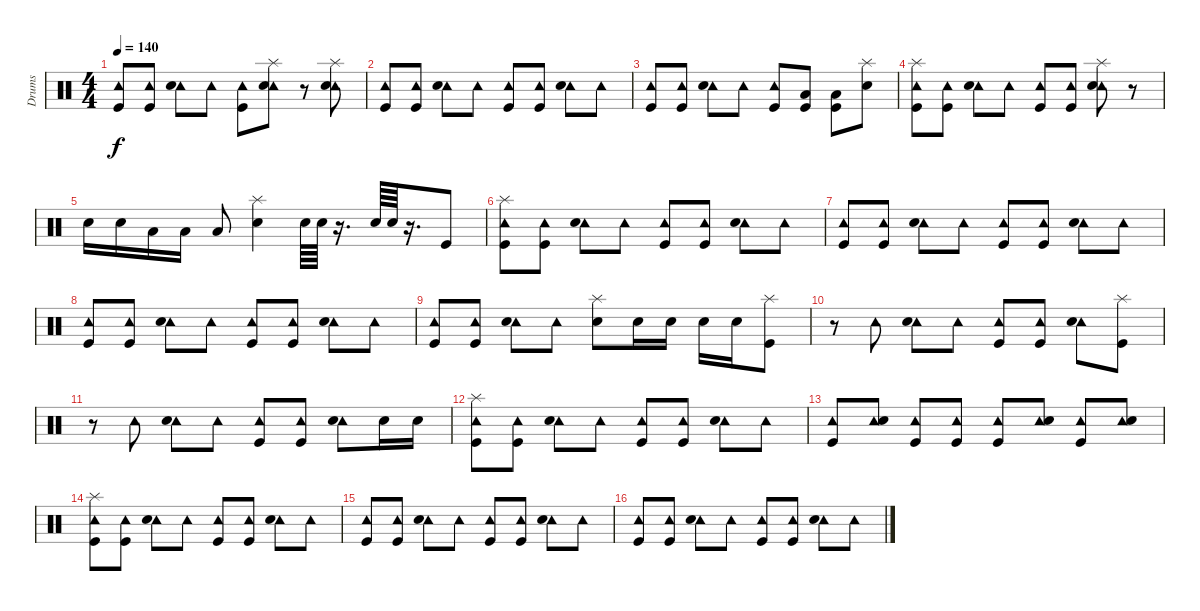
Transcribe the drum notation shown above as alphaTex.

\track ("Drums" "Drums") {instrument percussion}
\staff {score}
\articulation defaults
\ts (4 4)
\tempo 140
\clef neutral
\ks c
("Tambourine (hit)" "Kick (hit)").8{dy f} ("Tambourine (hit)" "Kick (hit)").8 ("Tambourine (hit)" "Snare (hit) 2").8 "Tambourine (hit)".8 ("Tambourine (hit)" "Kick (hit)").8 ("Tambourine (hit)" "Snare (hit) 2" "Splash (hit)").8 r.8 ("Tambourine (hit)" "Snare (hit) 2" "Splash (hit)").8 |
("Tambourine (hit)" "Kick (hit)").8 ("Tambourine (hit)" "Kick (hit)").8 ("Tambourine (hit)" "Snare (hit) 2").8 "Tambourine (hit)".8 ("Tambourine (hit)" "Kick (hit)").8 ("Tambourine (hit)" "Kick (hit)").8 ("Tambourine (hit)" "Snare (hit) 2").8 "Tambourine (hit)".8 |
("Tambourine (hit)" "Kick (hit)").8 ("Tambourine (hit)" "Kick (hit)").8 ("Tambourine (hit)" "Snare (hit) 2").8 "Tambourine (hit)".8 ("Tambourine (hit)" "Kick (hit)").8 ("Kick (hit)" "Low Tom (hit)").8 ("Kick (hit)" "Low Tom (hit)").8 ("Snare (hit) 2" "Splash (hit)").8 |
("Tambourine (hit)" "Kick (hit)" "Splash (hit)").8 ("Tambourine (hit)" "Kick (hit)").8 ("Tambourine (hit)" "Snare (hit) 2").8 "Tambourine (hit)".8 ("Tambourine (hit)" "Kick (hit)").8 ("Tambourine (hit)" "Kick (hit)").8 ("Tambourine (hit)" "Snare (hit) 2" "Splash (hit)").8 r.8 |
"Snare (hit) 2".16 "Snare (hit) 2".16 "Low Tom (hit)".16 "Low Tom (hit)".16 "Low Tom (hit)".8 ("Snare (hit) 2" "Splash (hit)").4 "Snare (hit) 2".64 "Snare (hit) 2".64 r.16{d} "Snare (hit) 2".64 "Snare (hit) 2".64 r.16{d} "Kick (hit)".8 |
("Tambourine (hit)" "Kick (hit)" "Splash (hit)").8 ("Tambourine (hit)" "Kick (hit)").8 ("Tambourine (hit)" "Snare (hit) 2").8 "Tambourine (hit)".8 ("Tambourine (hit)" "Kick (hit)").8 ("Tambourine (hit)" "Kick (hit)").8 ("Tambourine (hit)" "Snare (hit) 2").8 "Tambourine (hit)".8 |
("Tambourine (hit)" "Kick (hit)").8 ("Tambourine (hit)" "Kick (hit)").8 ("Tambourine (hit)" "Snare (hit) 2").8 "Tambourine (hit)".8 ("Tambourine (hit)" "Kick (hit)").8 ("Tambourine (hit)" "Kick (hit)").8 ("Tambourine (hit)" "Snare (hit) 2").8 "Tambourine (hit)".8 |
("Tambourine (hit)" "Kick (hit)").8 ("Tambourine (hit)" "Kick (hit)").8 ("Tambourine (hit)" "Snare (hit) 2").8 "Tambourine (hit)".8 ("Tambourine (hit)" "Kick (hit)").8 ("Tambourine (hit)" "Kick (hit)").8 ("Tambourine (hit)" "Snare (hit) 2").8 "Tambourine (hit)".8 |
("Tambourine (hit)" "Kick (hit)").8 ("Tambourine (hit)" "Kick (hit)").8 ("Tambourine (hit)" "Snare (hit) 2").8 "Tambourine (hit)".8 ("Snare (hit) 2" "Splash (hit)").8 "Snare (hit) 2".16 "Snare (hit) 2".16 "Snare (hit) 2".16 "Snare (hit) 2".16 ("Kick (hit)" "Splash (hit)").8 |
r.8 "Tambourine (hit)".8 ("Tambourine (hit)" "Snare (hit) 2").8 "Tambourine (hit)".8 ("Tambourine (hit)" "Kick (hit)").8 ("Tambourine (hit)" "Kick (hit)").8 ("Tambourine (hit)" "Snare (hit) 2").8 ("Kick (hit)" "Splash (hit)").8 |
r.8 "Tambourine (hit)".8 ("Tambourine (hit)" "Snare (hit) 2").8 "Tambourine (hit)".8 ("Tambourine (hit)" "Kick (hit)").8 ("Tambourine (hit)" "Kick (hit)").8 ("Tambourine (hit)" "Snare (hit) 2").8 "Snare (hit) 2".16 "Snare (hit) 2".16 |
("Tambourine (hit)" "Kick (hit)" "Splash (hit)").8 ("Tambourine (hit)" "Kick (hit)").8 ("Tambourine (hit)" "Snare (hit) 2").8 "Tambourine (hit)".8 ("Tambourine (hit)" "Kick (hit)").8 ("Tambourine (hit)" "Kick (hit)").8 ("Tambourine (hit)" "Snare (hit) 2").8 "Tambourine (hit)".8 |
("Tambourine (hit)" "Kick (hit)").8 ("Tambourine (hit)" "Snare (hit) 2").8 ("Tambourine (hit)" "Kick (hit)").8 ("Tambourine (hit)" "Kick (hit)").8 ("Tambourine (hit)" "Kick (hit)").8 ("Tambourine (hit)" "Snare (hit) 2").8 ("Tambourine (hit)" "Kick (hit)").8 ("Tambourine (hit)" "Snare (hit) 2").8 |
("Tambourine (hit)" "Kick (hit)" "Splash (hit)").8 ("Tambourine (hit)" "Kick (hit)").8 ("Tambourine (hit)" "Snare (hit) 2").8 "Tambourine (hit)".8 ("Tambourine (hit)" "Kick (hit)").8 ("Tambourine (hit)" "Kick (hit)").8 ("Tambourine (hit)" "Snare (hit) 2").8 "Tambourine (hit)".8 |
("Tambourine (hit)" "Kick (hit)").8 ("Tambourine (hit)" "Kick (hit)").8 ("Tambourine (hit)" "Snare (hit) 2").8 "Tambourine (hit)".8 ("Tambourine (hit)" "Kick (hit)").8 ("Tambourine (hit)" "Kick (hit)").8 ("Tambourine (hit)" "Snare (hit) 2").8 "Tambourine (hit)".8 |
("Tambourine (hit)" "Kick (hit)").8 ("Tambourine (hit)" "Kick (hit)").8 ("Tambourine (hit)" "Snare (hit) 2").8 "Tambourine (hit)".8 ("Tambourine (hit)" "Kick (hit)").8 ("Tambourine (hit)" "Kick (hit)").8 ("Tambourine (hit)" "Snare (hit) 2").8 "Tambourine (hit)".8
